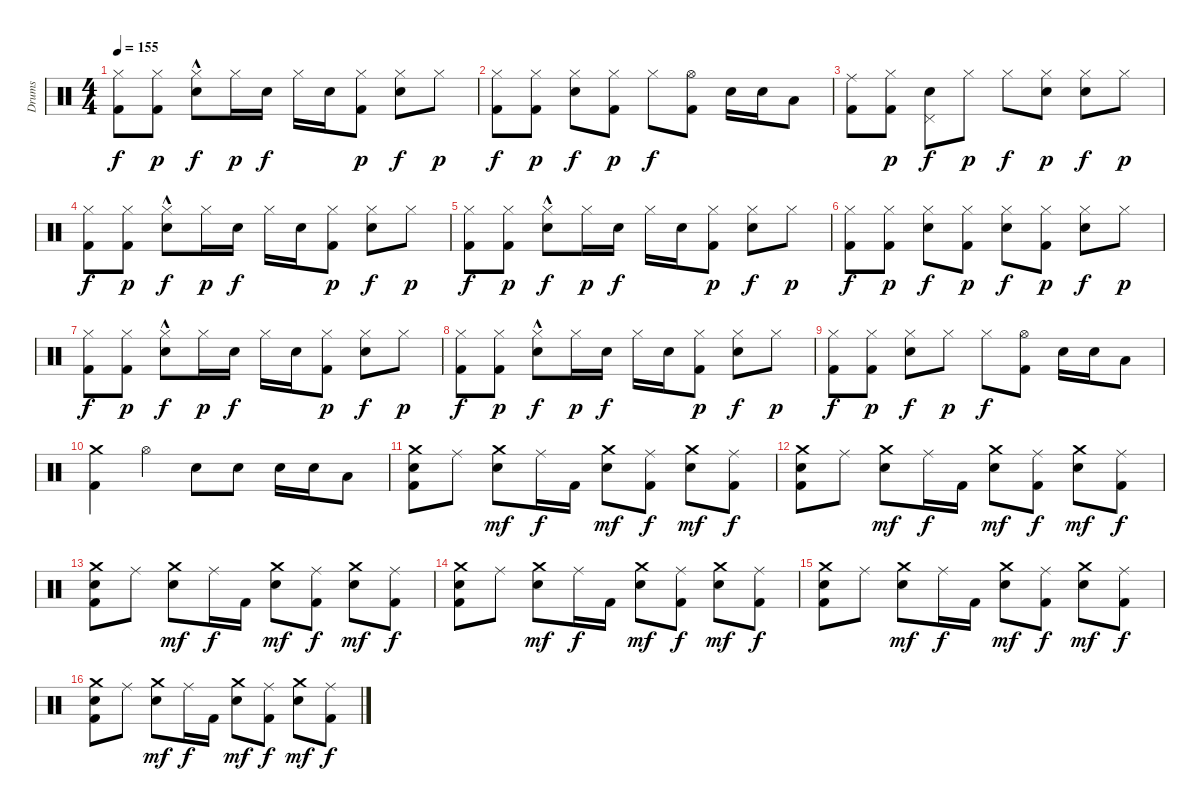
\track ("Drums" "Drums") {instrument percussion}
\staff {score}
\articulation defaults
\ts (4 4)
\tempo 155
\clef neutral
\ks c
("Hi-Hat (closed)" "Kick (hit) 2").8{dy f} ("Kick (hit) 2" "Hi-Hat (closed)").8{dy p} ("Hi-Hat (closed)" "Snare (hit) 2"{hac}).8{dy f} "Hi-Hat (closed)".16{dy p} "Snare (hit) 2".16{dy f} "Hi-Hat (closed)".16 "Snare (hit) 2".16 ("Kick (hit) 2" "Hi-Hat (closed)").8{dy p} ("Hi-Hat (closed)" "Snare (hit) 2").8{dy f} "Hi-Hat (closed)".8{dy p} |
("Hi-Hat (closed)" "Kick (hit) 2").8{dy f} ("Hi-Hat (closed)" "Kick (hit) 2").8{dy p} ("Hi-Hat (closed)" "Snare (hit) 2").8{dy f} ("Hi-Hat (closed)" "Kick (hit) 2").8{dy p} "Hi-Hat (closed)".8{dy f} ("Hi-Hat (open)" "Kick (hit) 2").8 "Snare (hit) 2".16 "Snare (hit) 2".16 "Low Tom (hit)".8 |
("Ride (middle)" "Kick (hit) 2").8 ("Kick (hit) 2" "Hi-Hat (closed)").8{dy p} ("Snare (hit) 2" "Pedal Hi-Hat (hit)").8{dy f} "Hi-Hat (closed)".8{dy p} "Hi-Hat (closed)".8{dy f} ("Snare (hit)" "Hi-Hat (closed)").8{dy p} ("Snare (hit) 2" "Hi-Hat (closed)").8{dy f} "Hi-Hat (closed)".8{dy p} |
("Hi-Hat (closed)" "Kick (hit) 2").8{dy f} ("Kick (hit) 2" "Hi-Hat (closed)").8{dy p} ("Hi-Hat (closed)" "Snare (hit) 2"{hac}).8{dy f} "Hi-Hat (closed)".16{dy p} "Snare (hit) 2".16{dy f} "Hi-Hat (closed)".16 "Snare (hit) 2".16 ("Kick (hit) 2" "Hi-Hat (closed)").8{dy p} ("Hi-Hat (closed)" "Snare (hit) 2").8{dy f} "Hi-Hat (closed)".8{dy p} |
("Hi-Hat (closed)" "Kick (hit) 2").8{dy f} ("Kick (hit) 2" "Hi-Hat (closed)").8{dy p} ("Hi-Hat (closed)" "Snare (hit) 2"{hac}).8{dy f} "Hi-Hat (closed)".16{dy p} "Snare (hit) 2".16{dy f} "Hi-Hat (closed)".16 "Snare (hit) 2".16 ("Kick (hit) 2" "Hi-Hat (closed)").8{dy p} ("Hi-Hat (closed)" "Snare (hit) 2").8{dy f} "Hi-Hat (closed)".8{dy p} |
("Hi-Hat (closed)" "Kick (hit) 2").8{dy f} ("Hi-Hat (closed)" "Kick (hit) 2").8{dy p} ("Hi-Hat (closed)" "Snare (hit) 2").8{dy f} ("Hi-Hat (closed)" "Kick (hit) 2").8{dy p} ("Hi-Hat (closed)" "Snare (hit) 2").8{dy f} ("Hi-Hat (closed)" "Kick (hit) 2").8{dy p} ("Hi-Hat (closed)" "Snare (hit) 2").8{dy f} "Hi-Hat (closed)".8{dy p} |
("Hi-Hat (closed)" "Kick (hit) 2").8{dy f} ("Kick (hit) 2" "Hi-Hat (closed)").8{dy p} ("Hi-Hat (closed)" "Snare (hit) 2"{hac}).8{dy f} "Hi-Hat (closed)".16{dy p} "Snare (hit) 2".16{dy f} "Hi-Hat (closed)".16 "Snare (hit) 2".16 ("Kick (hit) 2" "Hi-Hat (closed)").8{dy p} ("Hi-Hat (closed)" "Snare (hit) 2").8{dy f} "Hi-Hat (closed)".8{dy p} |
("Hi-Hat (closed)" "Kick (hit) 2").8{dy f} ("Kick (hit) 2" "Hi-Hat (closed)").8{dy p} ("Hi-Hat (closed)" "Snare (hit) 2"{hac}).8{dy f} "Hi-Hat (closed)".16{dy p} "Snare (hit) 2".16{dy f} "Hi-Hat (closed)".16 "Snare (hit) 2".16 ("Kick (hit) 2" "Hi-Hat (closed)").8{dy p} ("Hi-Hat (closed)" "Snare (hit) 2").8{dy f} "Hi-Hat (closed)".8{dy p} |
("Hi-Hat (closed)" "Kick (hit) 2").8{dy f} ("Hi-Hat (closed)" "Kick (hit) 2").8{dy p} ("Hi-Hat (closed)" "Snare (hit) 2").8{dy f} "Hi-Hat (closed)".8{dy p} "Hi-Hat (closed)".8{dy f} ("Hi-Hat (open)" "Kick (hit) 2").8 "Snare (hit) 2".16 "Snare (hit) 2".16 "Low Tom (hit)".8 |
("Kick (hit) 2" "Crash medium (hit)").4 "Hi-Hat (open)".4 "Snare (hit) 2".8 "Snare (hit) 2".8 "Snare (hit) 2".16 "Snare (hit) 2".16 "Low Tom (hit)".8 |
("Crash medium (hit)" "Snare (hit) 2" "Kick (hit) 2").8 "Ride (middle)".8 ("Crash medium (hit)" "Snare (hit) 2").8{dy mf} "Ride (middle)".16{dy f} "Kick (hit) 2".16 ("Crash medium (hit)" "Snare (hit) 2").8{dy mf} ("Ride (middle)" "Kick (hit) 2").8{dy f} ("Crash medium (hit)" "Snare (hit) 2").8{dy mf} ("Ride (middle)" "Kick (hit) 2").8{dy f} |
("Crash medium (hit)" "Snare (hit) 2" "Kick (hit) 2").8 "Ride (middle)".8 ("Crash medium (hit)" "Snare (hit) 2").8{dy mf} "Ride (middle)".16{dy f} "Kick (hit) 2".16 ("Crash medium (hit)" "Snare (hit) 2").8{dy mf} ("Ride (middle)" "Kick (hit) 2").8{dy f} ("Crash medium (hit)" "Snare (hit) 2").8{dy mf} ("Ride (middle)" "Kick (hit) 2").8{dy f} |
("Crash medium (hit)" "Snare (hit) 2" "Kick (hit) 2").8 "Ride (middle)".8 ("Crash medium (hit)" "Snare (hit) 2").8{dy mf} "Ride (middle)".16{dy f} "Kick (hit) 2".16 ("Crash medium (hit)" "Snare (hit) 2").8{dy mf} ("Ride (middle)" "Kick (hit) 2").8{dy f} ("Crash medium (hit)" "Snare (hit) 2").8{dy mf} ("Ride (middle)" "Kick (hit) 2").8{dy f} |
("Crash medium (hit)" "Snare (hit) 2" "Kick (hit) 2").8 "Ride (middle)".8 ("Crash medium (hit)" "Snare (hit) 2").8{dy mf} "Ride (middle)".16{dy f} "Kick (hit) 2".16 ("Crash medium (hit)" "Snare (hit) 2").8{dy mf} ("Ride (middle)" "Kick (hit) 2").8{dy f} ("Crash medium (hit)" "Snare (hit) 2").8{dy mf} ("Ride (middle)" "Kick (hit) 2").8{dy f} |
("Crash medium (hit)" "Snare (hit) 2" "Kick (hit) 2").8 "Ride (middle)".8 ("Crash medium (hit)" "Snare (hit) 2").8{dy mf} "Ride (middle)".16{dy f} "Kick (hit) 2".16 ("Crash medium (hit)" "Snare (hit) 2").8{dy mf} ("Ride (middle)" "Kick (hit) 2").8{dy f} ("Crash medium (hit)" "Snare (hit) 2").8{dy mf} ("Ride (middle)" "Kick (hit) 2").8{dy f} |
("Crash medium (hit)" "Snare (hit) 2" "Kick (hit) 2").8 "Ride (middle)".8 ("Crash medium (hit)" "Snare (hit) 2").8{dy mf} "Ride (middle)".16{dy f} "Kick (hit) 2".16 ("Crash medium (hit)" "Snare (hit) 2").8{dy mf} ("Ride (middle)" "Kick (hit) 2").8{dy f} ("Crash medium (hit)" "Snare (hit) 2").8{dy mf} ("Ride (middle)" "Kick (hit) 2").8{dy f}
